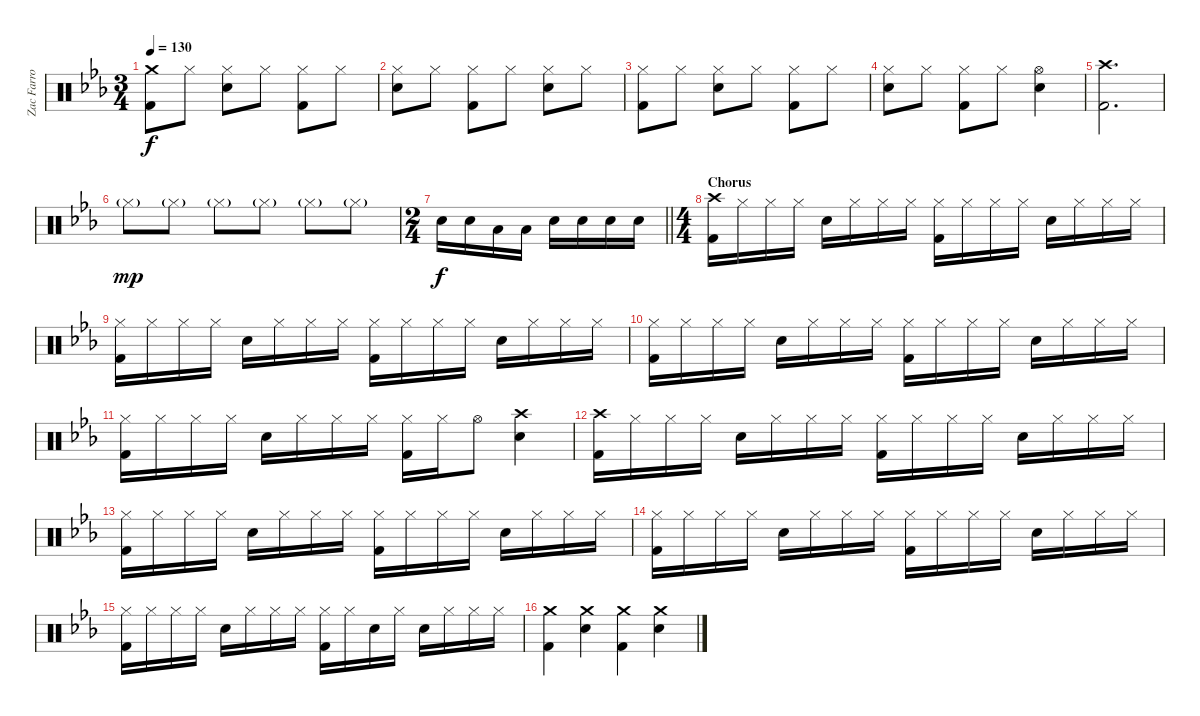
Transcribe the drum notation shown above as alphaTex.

\track ("Zac Farro (Drums)" "Zac Farro ") {instrument percussion}
\staff {score}
\articulation defaults
\ts (3 4)
\tempo 130
\clef neutral
\ks eb
("Crash medium (hit)" "Kick (hit) 2").8{dy f} "Hi-Hat (closed)".8 ("Hi-Hat (closed)" "Electric Snare (hit)").8 "Hi-Hat (closed)".8 ("Hi-Hat (closed)" "Kick (hit) 2").8 "Hi-Hat (closed)".8 |
("Hi-Hat (closed)" "Electric Snare (hit)").8 "Hi-Hat (closed)".8 ("Hi-Hat (closed)" "Kick (hit) 2").8 "Hi-Hat (closed)".8 ("Hi-Hat (closed)" "Electric Snare (hit)").8 "Hi-Hat (closed)".8 |
("Hi-Hat (closed)" "Kick (hit) 2").8 "Hi-Hat (closed)".8 ("Hi-Hat (closed)" "Electric Snare (hit)").8 "Hi-Hat (closed)".8 ("Hi-Hat (closed)" "Kick (hit) 2").8 "Hi-Hat (closed)".8 |
("Hi-Hat (closed)" "Electric Snare (hit)").8 "Hi-Hat (closed)".8 ("Hi-Hat (closed)" "Kick (hit) 2").8 "Hi-Hat (closed)".8 ("Hi-Hat (open)" "Electric Snare (hit)").4 |
("Crash high (hit)" "Kick (hit) 2").2{d} |
"Hi-Hat (closed)"{g}.8{dy mp} "Hi-Hat (closed)"{g}.8 "Hi-Hat (closed)"{g}.8 "Hi-Hat (closed)"{g}.8 "Hi-Hat (closed)"{g}.8 "Hi-Hat (closed)"{g}.8 |
\ts (2 4)
\barLineRight lightlight "Electric Snare (hit)".16{dy f} "Electric Snare (hit)".16 "Low Tom (hit)".16 "Low Tom (hit)".16 "Electric Snare (hit)".16 "Electric Snare (hit)".16 "Electric Snare (hit)".16 "Electric Snare (hit)".16
|
\ts (4 4)
\section ("" "Chorus")
("Crash high (hit)" "Kick (hit) 2").16 "Hi-Hat (closed)".16 "Hi-Hat (closed)".16 "Hi-Hat (closed)".16 "Electric Snare (hit)".16 "Hi-Hat (closed)".16 "Hi-Hat (closed)".16 "Hi-Hat (closed)".16 ("Hi-Hat (closed)" "Kick (hit) 2").16 "Hi-Hat (closed)".16 "Hi-Hat (closed)".16 "Hi-Hat (closed)".16 "Electric Snare (hit)".16 "Hi-Hat (closed)".16 "Hi-Hat (closed)".16 "Hi-Hat (closed)".16 |
("Hi-Hat (closed)" "Kick (hit) 2").16 "Hi-Hat (closed)".16 "Hi-Hat (closed)".16 "Hi-Hat (closed)".16 "Electric Snare (hit)".16 "Hi-Hat (closed)".16 "Hi-Hat (closed)".16 "Hi-Hat (closed)".16 ("Hi-Hat (closed)" "Kick (hit) 2").16 "Hi-Hat (closed)".16 "Hi-Hat (closed)".16 "Hi-Hat (closed)".16 "Electric Snare (hit)".16 "Hi-Hat (closed)".16 "Hi-Hat (closed)".16 "Hi-Hat (closed)".16 |
("Hi-Hat (closed)" "Kick (hit) 2").16 "Hi-Hat (closed)".16 "Hi-Hat (closed)".16 "Hi-Hat (closed)".16 "Electric Snare (hit)".16 "Hi-Hat (closed)".16 "Hi-Hat (closed)".16 "Hi-Hat (closed)".16 ("Hi-Hat (closed)" "Kick (hit) 2").16 "Hi-Hat (closed)".16 "Hi-Hat (closed)".16 "Hi-Hat (closed)".16 "Electric Snare (hit)".16 "Hi-Hat (closed)".16 "Hi-Hat (closed)".16 "Hi-Hat (closed)".16 |
("Hi-Hat (closed)" "Kick (hit) 2").16 "Hi-Hat (closed)".16 "Hi-Hat (closed)".16 "Hi-Hat (closed)".16 "Electric Snare (hit)".16 "Hi-Hat (closed)".16 "Hi-Hat (closed)".16 "Hi-Hat (closed)".16 ("Hi-Hat (closed)" "Kick (hit) 2").16 "Hi-Hat (closed)".16 "Hi-Hat (open)".8 ("Crash high (hit)" "Snare (hit) 2").4 |
("Crash high (hit)" "Kick (hit) 2").16 "Hi-Hat (closed)".16 "Hi-Hat (closed)".16 "Hi-Hat (closed)".16 "Electric Snare (hit)".16 "Hi-Hat (closed)".16 "Hi-Hat (closed)".16 "Hi-Hat (closed)".16 ("Hi-Hat (closed)" "Kick (hit) 2").16 "Hi-Hat (closed)".16 "Hi-Hat (closed)".16 "Hi-Hat (closed)".16 "Electric Snare (hit)".16 "Hi-Hat (closed)".16 "Hi-Hat (closed)".16 "Hi-Hat (closed)".16 |
("Hi-Hat (closed)" "Kick (hit) 2").16 "Hi-Hat (closed)".16 "Hi-Hat (closed)".16 "Hi-Hat (closed)".16 "Electric Snare (hit)".16 "Hi-Hat (closed)".16 "Hi-Hat (closed)".16 "Hi-Hat (closed)".16 ("Hi-Hat (closed)" "Kick (hit) 2").16 "Hi-Hat (closed)".16 "Hi-Hat (closed)".16 "Hi-Hat (closed)".16 "Electric Snare (hit)".16 "Hi-Hat (closed)".16 "Hi-Hat (closed)".16 "Hi-Hat (closed)".16 |
("Hi-Hat (closed)" "Kick (hit) 2").16 "Hi-Hat (closed)".16 "Hi-Hat (closed)".16 "Hi-Hat (closed)".16 "Electric Snare (hit)".16 "Hi-Hat (closed)".16 "Hi-Hat (closed)".16 "Hi-Hat (closed)".16 ("Hi-Hat (closed)" "Kick (hit) 2").16 "Hi-Hat (closed)".16 "Hi-Hat (closed)".16 "Hi-Hat (closed)".16 "Electric Snare (hit)".16 "Hi-Hat (closed)".16 "Hi-Hat (closed)".16 "Hi-Hat (closed)".16 |
("Hi-Hat (closed)" "Kick (hit) 2").16 "Hi-Hat (closed)".16 "Hi-Hat (closed)".16 "Hi-Hat (closed)".16 "Electric Snare (hit)".16 "Hi-Hat (closed)".16 "Hi-Hat (closed)".16 "Hi-Hat (closed)".16 ("Hi-Hat (closed)" "Kick (hit) 2").16 "Hi-Hat (closed)".16 "Electric Snare (hit)".16 "Hi-Hat (closed)".16 "Electric Snare (hit)".16 "Hi-Hat (closed)".16 "Hi-Hat (closed)".16 "Hi-Hat (closed)".16 |
("Crash medium (hit)" "Kick (hit) 2").4 ("Crash medium (hit)" "Electric Snare (hit)").4 ("Crash medium (hit)" "Kick (hit) 2").4 ("Crash medium (hit)" "Electric Snare (hit)").4
